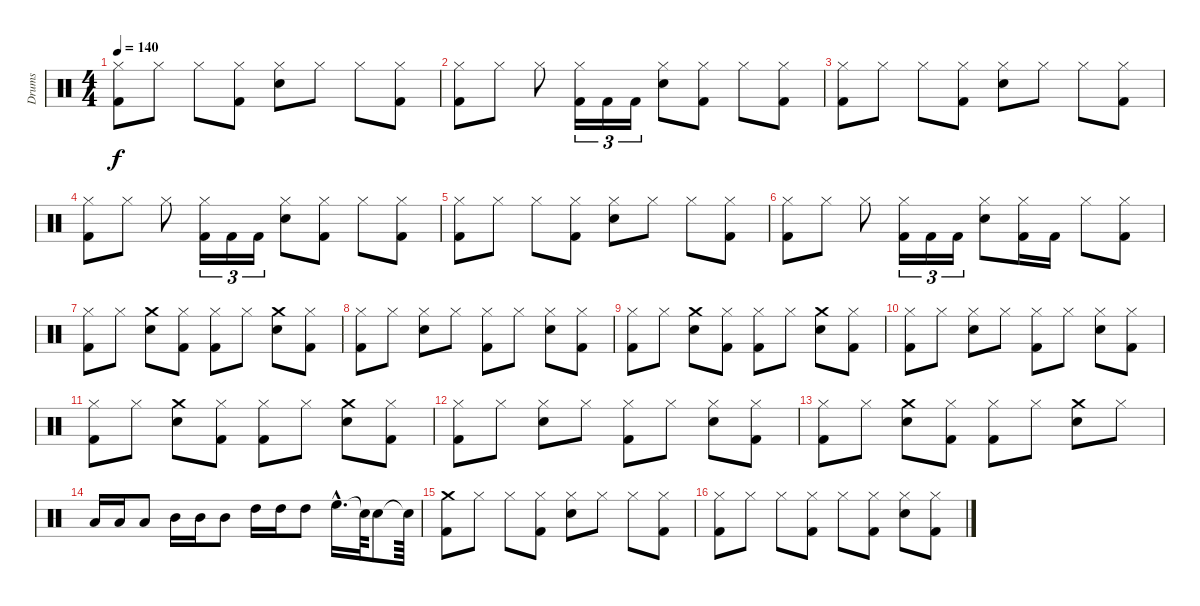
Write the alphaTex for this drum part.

\track ("Drums" "Drums") {instrument percussion}
\staff {score}
\articulation defaults
\ts (4 4)
\tempo 140
\clef neutral
\ks c
("Hi-Hat (closed)" "Kick (hit) 2").8{dy f} "Hi-Hat (closed)".8 "Hi-Hat (closed)".8 ("Kick (hit) 2" "Hi-Hat (closed)").8 ("Hi-Hat (closed)" "Snare (hit) 2").8 "Hi-Hat (closed)".8 "Hi-Hat (closed)".8 ("Kick (hit) 2" "Hi-Hat (closed)").8 |
("Hi-Hat (closed)" "Kick (hit) 2").8 "Hi-Hat (closed)".8 "Hi-Hat (closed)".8 ("Hi-Hat (closed)" "Kick (hit) 2").16{tu (3 2)} "Kick (hit) 2".16{tu (3 2)} "Kick (hit) 2".16{tu (3 2)} ("Snare (hit) 2" "Hi-Hat (closed)").8 ("Hi-Hat (closed)" "Kick (hit) 2").8 "Hi-Hat (closed)".8 ("Hi-Hat (closed)" "Kick (hit) 2").8 |
("Hi-Hat (closed)" "Kick (hit) 2").8 "Hi-Hat (closed)".8 "Hi-Hat (closed)".8 ("Kick (hit) 2" "Hi-Hat (closed)").8 ("Hi-Hat (closed)" "Snare (hit) 2").8 "Hi-Hat (closed)".8 "Hi-Hat (closed)".8 ("Kick (hit) 2" "Hi-Hat (closed)").8 |
("Hi-Hat (closed)" "Kick (hit) 2").8 "Hi-Hat (closed)".8 "Hi-Hat (closed)".8 ("Hi-Hat (closed)" "Kick (hit) 2").16{tu (3 2)} "Kick (hit) 2".16{tu (3 2)} "Kick (hit) 2".16{tu (3 2)} ("Snare (hit) 2" "Hi-Hat (closed)").8 ("Hi-Hat (closed)" "Kick (hit) 2").8 "Hi-Hat (closed)".8 ("Hi-Hat (closed)" "Kick (hit) 2").8 |
("Hi-Hat (closed)" "Kick (hit) 2").8 "Hi-Hat (closed)".8 "Hi-Hat (closed)".8 ("Kick (hit) 2" "Hi-Hat (closed)").8 ("Hi-Hat (closed)" "Snare (hit) 2").8 "Hi-Hat (closed)".8 "Hi-Hat (closed)".8 ("Kick (hit) 2" "Hi-Hat (closed)").8 |
("Hi-Hat (closed)" "Kick (hit) 2").8 "Hi-Hat (closed)".8 "Hi-Hat (closed)".8 ("Hi-Hat (closed)" "Kick (hit) 2").16{tu (3 2)} "Kick (hit) 2".16{tu (3 2)} "Kick (hit) 2".16{tu (3 2)} ("Snare (hit) 2" "Hi-Hat (closed)").8 ("Hi-Hat (closed)" "Kick (hit) 2").16 "Kick (hit) 2".16 "Hi-Hat (closed)".8 ("Hi-Hat (closed)" "Kick (hit) 2").8 |
("Kick (hit) 2" "Hi-Hat (closed)").8 "Hi-Hat (closed)".8 ("Snare (hit) 2" "Crash medium (hit)").8 ("Kick (hit) 2" "Hi-Hat (closed)").8 ("Kick (hit) 2" "Hi-Hat (closed)").8 "Hi-Hat (closed)".8 ("Crash medium (hit)" "Snare (hit) 2").8 ("Kick (hit) 2" "Hi-Hat (closed)").8 |
("Hi-Hat (closed)" "Kick (hit) 2").8 "Hi-Hat (closed)".8 ("Snare (hit) 2" "Hi-Hat (closed)").8 "Hi-Hat (closed)".8 ("Hi-Hat (closed)" "Kick (hit) 2").8 "Hi-Hat (closed)".8 ("Snare (hit) 2" "Hi-Hat (closed)").8 ("Hi-Hat (closed)" "Kick (hit) 2").8 |
("Kick (hit) 2" "Hi-Hat (closed)").8 "Hi-Hat (closed)".8 ("Snare (hit) 2" "Crash medium (hit)").8 ("Kick (hit) 2" "Hi-Hat (closed)").8 ("Kick (hit) 2" "Hi-Hat (closed)").8 "Hi-Hat (closed)".8 ("Crash medium (hit)" "Snare (hit) 2").8 ("Kick (hit) 2" "Hi-Hat (closed)").8 |
("Hi-Hat (closed)" "Kick (hit) 2").8 "Hi-Hat (closed)".8 ("Snare (hit) 2" "Hi-Hat (closed)").8 "Hi-Hat (closed)".8 ("Hi-Hat (closed)" "Kick (hit) 2").8 "Hi-Hat (closed)".8 ("Snare (hit) 2" "Hi-Hat (closed)").8 ("Hi-Hat (closed)" "Kick (hit) 2").8 |
("Kick (hit) 2" "Hi-Hat (closed)").8 "Hi-Hat (closed)".8 ("Snare (hit) 2" "Crash medium (hit)").8 ("Kick (hit) 2" "Hi-Hat (closed)").8 ("Kick (hit) 2" "Hi-Hat (closed)").8 "Hi-Hat (closed)".8 ("Crash medium (hit)" "Snare (hit) 2").8 ("Kick (hit) 2" "Hi-Hat (closed)").8 |
("Hi-Hat (closed)" "Kick (hit) 2").8 "Hi-Hat (closed)".8 ("Snare (hit) 2" "Hi-Hat (closed)").8 "Hi-Hat (closed)".8 ("Hi-Hat (closed)" "Kick (hit) 2").8 "Hi-Hat (closed)".8 ("Snare (hit) 2" "Hi-Hat (closed)").8 ("Hi-Hat (closed)" "Kick (hit) 2").8 |
("Kick (hit) 2" "Hi-Hat (closed)").8 "Hi-Hat (closed)".8 ("Snare (hit) 2" "Crash medium (hit)").8 ("Kick (hit) 2" "Hi-Hat (closed)").8 ("Kick (hit) 2" "Hi-Hat (closed)").8 "Hi-Hat (closed)".8 ("Crash medium (hit)" "Snare (hit) 2").8 "Hi-Hat (closed)".8 |
"Low Tom (hit)".16 "Low Tom (hit)".16 "Low Tom (hit)".8 "Mid Tom (hit)".16 "Mid Tom (hit)".16 "Mid Tom (hit)".8 "High Tom (hit)".16 "High Tom (hit)".16 "High Tom (hit)".8 "High Floor Tom (hit)"{hac}.16{d} "Snare (hit)"{t}.64 "Snare (hit) 2".8 "Snare (hit)"{t}.64 |
("Kick (hit) 2" "Crash medium (hit)").8 "Hi-Hat (closed)".8 "Hi-Hat (closed)".8 ("Kick (hit) 2" "Hi-Hat (closed)").8 ("Hi-Hat (closed)" "Snare (hit) 2").8 "Hi-Hat (closed)".8 "Hi-Hat (closed)".8 ("Kick (hit) 2" "Hi-Hat (closed)").8 |
("Kick (hit) 2" "Hi-Hat (closed)").8 "Hi-Hat (closed)".8 "Hi-Hat (closed)".8 ("Kick (hit) 2" "Hi-Hat (closed)").8 "Hi-Hat (closed)".8 ("Kick (hit) 2" "Hi-Hat (closed)").8 ("Snare (hit) 2" "Hi-Hat (closed)").8 ("Kick (hit) 2" "Hi-Hat (closed)").8
